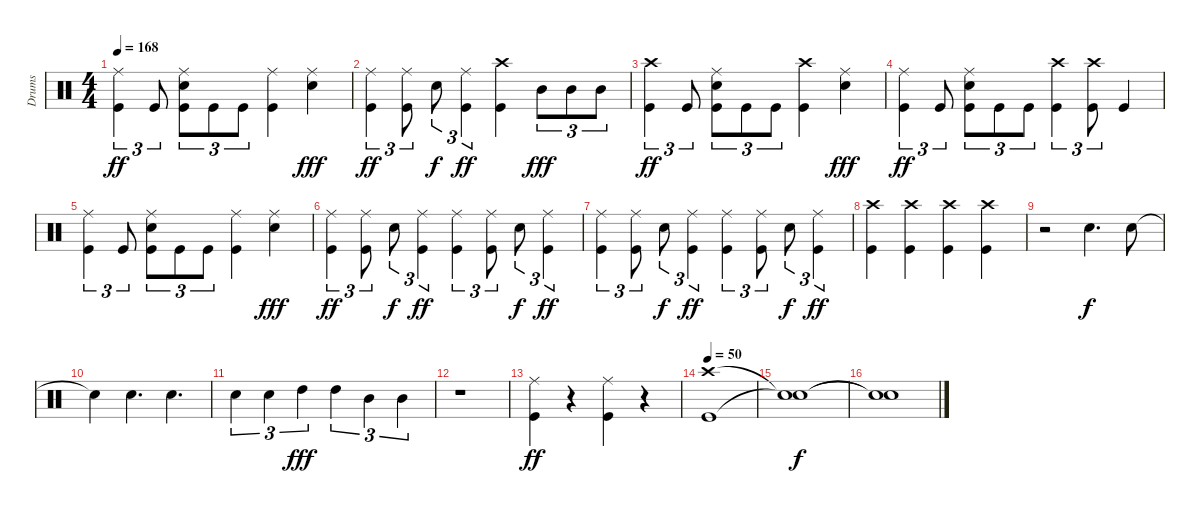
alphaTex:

\track ("Drums" "Drums") {instrument percussion}
\staff {score}
\articulation defaults
\ts (4 4)
\tempo 168
\clef neutral
\ks c
("Ride (middle)" "Kick (hit)").4{tu (3 2) dy ff} "Kick (hit)".8{tu (3 2)} ("Ride (middle)" "Electric Snare (hit)" "Kick (hit)").8{tu (3 2)} "Kick (hit)".8{tu (3 2)} "Kick (hit)".8{tu (3 2)} ("Ride (middle)" "Kick (hit)").4 ("Ride (middle)" "Electric Snare (hit)").4{dy fff} |
("Ride (middle)" "Kick (hit)").4{tu (3 2) dy ff} ("Ride (middle)" "Kick (hit)").8{tu (3 2)} "Electric Snare (hit)".8{tu (3 2) dy f} ("Ride (middle)" "Kick (hit)").4{tu (3 2) dy ff} ("Crash high (hit)" "Kick (hit)").4 "Mid Tom (hit)".8{tu (3 2) dy fff} "Mid Tom (hit)".8{tu (3 2)} "Mid Tom (hit)".8{tu (3 2)} |
("Crash high (hit)" "Kick (hit)").4{tu (3 2) dy ff} "Kick (hit)".8{tu (3 2)} ("Ride (middle)" "Electric Snare (hit)" "Kick (hit)").8{tu (3 2)} "Kick (hit)".8{tu (3 2)} "Kick (hit)".8{tu (3 2)} ("Crash high (hit)" "Kick (hit)").4 ("Ride (middle)" "Electric Snare (hit)").4{dy fff} |
("Ride (middle)" "Kick (hit)").4{tu (3 2) dy ff} "Kick (hit)".8{tu (3 2)} ("Ride (middle)" "Electric Snare (hit)" "Kick (hit)").8{tu (3 2)} "Kick (hit)".8{tu (3 2)} "Kick (hit)".8{tu (3 2)} ("Crash high (hit)" "Kick (hit)").4{tu (3 2)} ("Crash high (hit)" "Kick (hit)").8{tu (3 2)} "Kick (hit)".4 |
("Ride (middle)" "Kick (hit)").4{tu (3 2)} "Kick (hit)".8{tu (3 2)} ("Ride (middle)" "Electric Snare (hit)" "Kick (hit)").8{tu (3 2)} "Kick (hit)".8{tu (3 2)} "Kick (hit)".8{tu (3 2)} ("Ride (middle)" "Kick (hit)").4 ("Ride (middle)" "Electric Snare (hit)").4{dy fff} |
("Ride (middle)" "Kick (hit)").4{tu (3 2) dy ff} ("Ride (middle)" "Kick (hit)").8{tu (3 2)} "Electric Snare (hit)".8{tu (3 2) dy f} ("Ride (middle)" "Kick (hit)").4{tu (3 2) dy ff} ("Ride (middle)" "Kick (hit)").4{tu (3 2)} ("Ride (middle)" "Kick (hit)").8{tu (3 2)} "Electric Snare (hit)".8{tu (3 2) dy f} ("Ride (middle)" "Kick (hit)").4{tu (3 2) dy ff} |
("Ride (middle)" "Kick (hit)").4{tu (3 2)} ("Ride (middle)" "Kick (hit)").8{tu (3 2)} "Electric Snare (hit)".8{tu (3 2) dy f} ("Ride (middle)" "Kick (hit)").4{tu (3 2) dy ff} ("Ride (middle)" "Kick (hit)").4{tu (3 2)} ("Ride (middle)" "Kick (hit)").8{tu (3 2)} "Electric Snare (hit)".8{tu (3 2) dy f} ("Ride (middle)" "Kick (hit)").4{tu (3 2) dy ff} |
("Crash high (hit)" "Kick (hit)").4 ("Crash high (hit)" "Kick (hit)").4 ("Crash high (hit)" "Kick (hit)").4 ("Crash high (hit)" "Kick (hit)").4 |
r.2 "Electric Snare (hit)".4{d dy f} "Electric Snare (hit)".8 |
"Electric Snare (hit)"{t}.4 "Electric Snare (hit)".4{d} "Electric Snare (hit)".4{d} |
"Electric Snare (hit)".4{tu (3 2)} "Electric Snare (hit)".4{tu (3 2)} "High Tom (hit)".4{tu (3 2) dy fff} "High Tom (hit)".4{tu (3 2)} "Mid Tom (hit)".4{tu (3 2)} "Mid Tom (hit)".4{tu (3 2)} |
r.1 |
("Ride (middle)" "Kick (hit)").4{dy ff} r.4 ("Ride (middle)" "Kick (hit)").4 r.4 |
\tempo 50
("Crash high (hit)" "Kick (hit)").1 |
("Snare (hit)"{t} "Snare (hit)"{t}).1{dy f} |
("Snare (hit)"{t} "Snare (hit)"{t}).1
